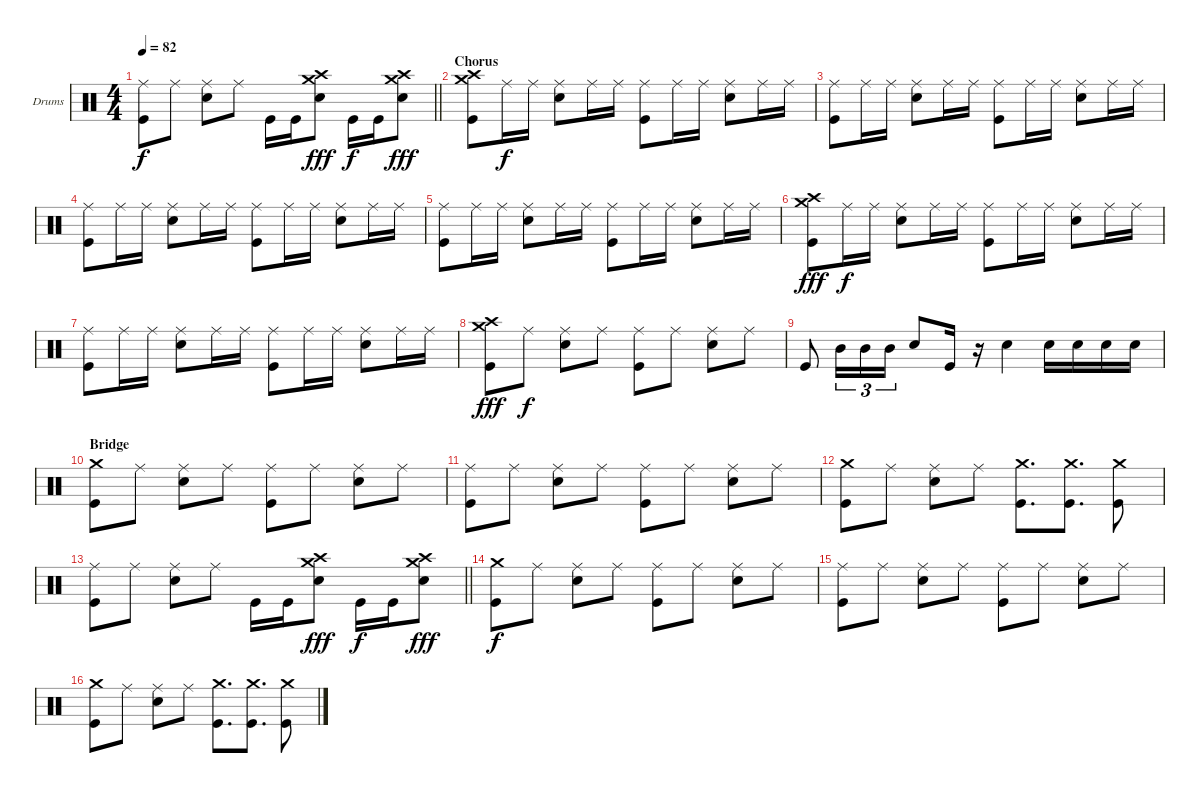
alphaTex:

\bracketExtendMode groupsimilarinstruments
\firstSystemTrackNameOrientation horizontal
\otherSystemsTrackNameOrientation horizontal
\track ("Drumkit" "Drums") {instrument percussion}
\staff {score}
\articulation defaults
\ts (4 4)
\tempo 82
\clef neutral
\barLineRight lightlight
\ks c
("Kick (hit)" "Ride (middle)").8{dy f} "Ride (middle)".8 ("Snare (hit) 2" "Ride (middle)").8 "Ride (middle)".8 "Kick (hit)".16 "Kick (hit)".16 ("Snare (hit) 2" "Crash medium (hit)" "Crash high (hit)").8{dy fff} "Kick (hit)".16{dy f} "Kick (hit)".16 ("Snare (hit) 2" "Crash medium (hit)" "Crash high (hit)").8{dy fff} |
\section ("" "Chorus")
("Kick (hit)" "Crash medium (hit)" "Crash high (hit)").8 "Ride (middle)".16{dy f} "Ride (middle)".16 ("Snare (hit) 2" "Ride (middle)").8 "Ride (middle)".16 "Ride (middle)".16 ("Kick (hit)" "Ride (middle)").8 "Ride (middle)".16 "Ride (middle)".16 ("Snare (hit) 2" "Ride (middle)").8 "Ride (middle)".16 "Ride (middle)".16 |
("Kick (hit)" "Ride (middle)").8 "Ride (middle)".16 "Ride (middle)".16 ("Snare (hit) 2" "Ride (middle)").8 "Ride (middle)".16 "Ride (middle)".16 ("Kick (hit)" "Ride (middle)").8 "Ride (middle)".16 "Ride (middle)".16 ("Snare (hit) 2" "Ride (middle)").8 "Ride (middle)".16 "Ride (middle)".16 |
("Kick (hit)" "Ride (middle)").8 "Ride (middle)".16 "Ride (middle)".16 ("Snare (hit) 2" "Ride (middle)").8 "Ride (middle)".16 "Ride (middle)".16 ("Kick (hit)" "Ride (middle)").8 "Ride (middle)".16 "Ride (middle)".16 ("Snare (hit) 2" "Ride (middle)").8 "Ride (middle)".16 "Ride (middle)".16 |
("Kick (hit)" "Ride (middle)").8 "Ride (middle)".16 "Ride (middle)".16 ("Snare (hit) 2" "Ride (middle)").8 "Ride (middle)".16 "Ride (middle)".16 ("Kick (hit)" "Ride (middle)").8 "Ride (middle)".16 "Ride (middle)".16 ("Snare (hit) 2" "Ride (middle)").8 "Ride (middle)".16 "Ride (middle)".16 |
("Kick (hit)" "Crash medium (hit)" "Crash high (hit)").8{dy fff} "Ride (middle)".16{dy f} "Ride (middle)".16 ("Snare (hit) 2" "Ride (middle)").8 "Ride (middle)".16 "Ride (middle)".16 ("Kick (hit)" "Ride (middle)").8 "Ride (middle)".16 "Ride (middle)".16 ("Snare (hit) 2" "Ride (middle)").8 "Ride (middle)".16 "Ride (middle)".16 |
("Kick (hit)" "Ride (middle)").8 "Ride (middle)".16 "Ride (middle)".16 ("Snare (hit) 2" "Ride (middle)").8 "Ride (middle)".16 "Ride (middle)".16 ("Kick (hit)" "Ride (middle)").8 "Ride (middle)".16 "Ride (middle)".16 ("Snare (hit) 2" "Ride (middle)").8 "Ride (middle)".16 "Ride (middle)".16 |
("Kick (hit)" "Crash medium (hit)" "Crash high (hit)").8{dy fff} "Ride (middle)".8{dy f} ("Snare (hit) 2" "Ride (middle)").8 "Ride (middle)".8 ("Kick (hit)" "Ride (middle)").8 "Ride (middle)".8 ("Snare (hit) 2" "Ride (middle)").8 "Ride (middle)".8 |
"Kick (hit)".8 "Mid Tom (hit)".16{tu (3 2)} "Mid Tom (hit)".16{tu (3 2)} "Mid Tom (hit)".16{tu (3 2)} "Snare (hit) 2".8 "Kick (hit)".16 r.16 "Snare (hit) 2".4 "Snare (hit) 2".16 "Snare (hit) 2".16 "Snare (hit) 2".16 "Snare (hit) 2".16 |
\section ("" "Bridge")
("Kick (hit)" "Crash medium (hit)").8 "Ride (middle)".8 ("Snare (hit) 2" "Ride (middle)").8 "Ride (middle)".8 ("Kick (hit)" "Ride (middle)").8 "Ride (middle)".8 ("Snare (hit) 2" "Ride (middle)").8 "Ride (middle)".8 |
("Kick (hit)" "Ride (middle)").8 "Ride (middle)".8 ("Snare (hit) 2" "Ride (middle)").8 "Ride (middle)".8 ("Kick (hit)" "Ride (middle)").8 "Ride (middle)".8 ("Snare (hit) 2" "Ride (middle)").8 "Ride (middle)".8 |
("Kick (hit)" "Crash medium (hit)").8 "Ride (middle)".8 ("Snare (hit) 2" "Ride (middle)").8 "Ride (middle)".8 ("Kick (hit)" "Crash medium (hit)").8{d} ("Kick (hit)" "Crash medium (hit)").8{d} ("Kick (hit)" "Crash medium (hit)").8 |
\barLineRight lightlight
("Kick (hit)" "Ride (middle)").8 "Ride (middle)".8 ("Snare (hit) 2" "Ride (middle)").8 "Ride (middle)".8 "Kick (hit)".16 "Kick (hit)".16 ("Snare (hit) 2" "Crash medium (hit)" "Crash high (hit)").8{dy fff} "Kick (hit)".16{dy f} "Kick (hit)".16 ("Snare (hit) 2" "Crash medium (hit)" "Crash high (hit)").8{dy fff} |
("Kick (hit)" "Crash medium (hit)").8{dy f} "Ride (middle)".8 ("Snare (hit) 2" "Ride (middle)").8 "Ride (middle)".8 ("Kick (hit)" "Ride (middle)").8 "Ride (middle)".8 ("Snare (hit) 2" "Ride (middle)").8 "Ride (middle)".8 |
("Kick (hit)" "Ride (middle)").8 "Ride (middle)".8 ("Snare (hit) 2" "Ride (middle)").8 "Ride (middle)".8 ("Kick (hit)" "Ride (middle)").8 "Ride (middle)".8 ("Snare (hit) 2" "Ride (middle)").8 "Ride (middle)".8 |
("Kick (hit)" "Crash medium (hit)").8 "Ride (middle)".8 ("Snare (hit) 2" "Ride (middle)").8 "Ride (middle)".8 ("Kick (hit)" "Crash medium (hit)").8{d} ("Kick (hit)" "Crash medium (hit)").8{d} ("Kick (hit)" "Crash medium (hit)").8
